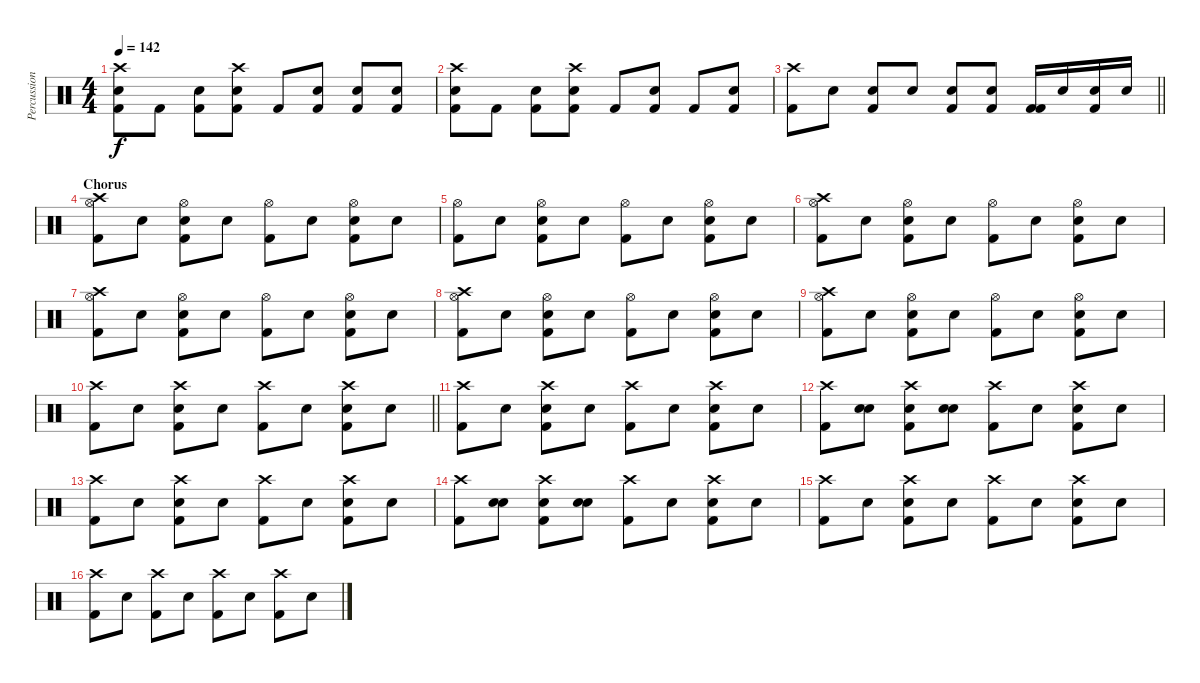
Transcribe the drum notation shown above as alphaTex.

\track ("Percussion" "Percussion") {instrument percussion}
\staff {score}
\articulation defaults
\ts (4 4)
\tempo 142
\clef neutral
\ks c
("Crash high (hit)" "Kick (hit) 2" "Snare (hit) 2").8{dy f} "Kick (hit) 2".8 ("Kick (hit) 2" "Snare (hit) 2").8 ("Crash high (hit)" "Kick (hit) 2" "Snare (hit) 2").8 "Kick (hit) 2".8 ("Kick (hit) 2" "Snare (hit) 2").8 ("Kick (hit) 2" "Snare (hit) 2").8 ("Kick (hit) 2" "Snare (hit) 2").8 |
("Crash high (hit)" "Kick (hit) 2" "Snare (hit) 2").8 "Kick (hit) 2".8 ("Kick (hit) 2" "Snare (hit) 2").8 ("Crash high (hit)" "Kick (hit) 2" "Snare (hit) 2").8 "Kick (hit) 2".8 ("Kick (hit) 2" "Snare (hit) 2").8 "Kick (hit) 2".8 ("Kick (hit) 2" "Snare (hit) 2").8 |
\barLineRight lightlight
("Crash high (hit)" "Kick (hit) 2").8 "Snare (hit)".8 ("Snare (hit) 2" "Kick (hit) 2").8 "Snare (hit)".8 ("Snare (hit) 2" "Kick (hit) 2").8 ("Kick (hit) 2" "Snare (hit)").8 ("Kick (hit) 2" "Kick (hit) 2").16 "Snare (hit) 2".16 ("Snare (hit) 2" "Kick (hit) 2").16 "Snare (hit) 2".16 |
\section ("" "Chorus")
("Crash high (hit)" "Kick (hit) 2" "Hi-Hat (open)").8 "Snare (hit)".8 ("Snare (hit) 2" "Kick (hit) 2" "Hi-Hat (open)").8 "Snare (hit)".8 ("Kick (hit) 2" "Hi-Hat (open)").8 "Snare (hit)".8 ("Snare (hit) 2" "Kick (hit) 2" "Hi-Hat (open)").8 "Snare (hit)".8 |
("Kick (hit) 2" "Hi-Hat (open)").8 "Snare (hit)".8 ("Snare (hit) 2" "Kick (hit) 2" "Hi-Hat (open)").8 "Snare (hit)".8 ("Kick (hit) 2" "Hi-Hat (open)").8 "Snare (hit)".8 ("Snare (hit) 2" "Kick (hit) 2" "Hi-Hat (open)").8 "Snare (hit)".8 |
("Crash high (hit)" "Kick (hit) 2" "Hi-Hat (open)").8 "Snare (hit)".8 ("Kick (hit) 2" "Snare (hit) 2" "Hi-Hat (open)").8 "Snare (hit)".8 ("Kick (hit) 2" "Hi-Hat (open)").8 "Snare (hit)".8 ("Kick (hit) 2" "Snare (hit) 2" "Hi-Hat (open)").8 "Snare (hit)".8 |
("Crash high (hit)" "Kick (hit) 2" "Hi-Hat (open)").8 "Snare (hit)".8 ("Kick (hit) 2" "Snare (hit) 2" "Hi-Hat (open)").8 "Snare (hit)".8 ("Kick (hit) 2" "Hi-Hat (open)").8 "Snare (hit)".8 ("Kick (hit) 2" "Snare (hit) 2" "Hi-Hat (open)").8 "Snare (hit)".8 |
("Crash high (hit)" "Kick (hit) 2" "Hi-Hat (open)").8 "Snare (hit)".8 ("Kick (hit) 2" "Snare (hit) 2" "Hi-Hat (open)").8 "Snare (hit)".8 ("Kick (hit) 2" "Hi-Hat (open)").8 "Snare (hit)".8 ("Kick (hit) 2" "Snare (hit) 2" "Hi-Hat (open)").8 "Snare (hit)".8 |
("Crash high (hit)" "Kick (hit) 2" "Hi-Hat (open)").8 "Snare (hit)".8 ("Kick (hit) 2" "Snare (hit) 2" "Hi-Hat (open)").8 "Snare (hit)".8 ("Kick (hit) 2" "Hi-Hat (open)").8 "Snare (hit)".8 ("Kick (hit) 2" "Snare (hit) 2" "Hi-Hat (open)").8 "Snare (hit)".8 |
\barLineRight lightlight
("Crash high (hit)" "Kick (hit) 2").8 "Snare (hit)".8 ("Crash high (hit)" "Kick (hit) 2" "Snare (hit) 2").8 "Snare (hit)".8 ("Crash high (hit)" "Kick (hit) 2").8 "Snare (hit)".8 ("Crash high (hit)" "Kick (hit) 2" "Snare (hit) 2").8 "Snare (hit)".8 |
("Crash high (hit)" "Kick (hit) 2").8 "Snare (hit)".8 ("Crash high (hit)" "Kick (hit) 2" "Snare (hit) 2").8 "Snare (hit)".8 ("Crash high (hit)" "Kick (hit) 2").8 "Snare (hit)".8 ("Crash high (hit)" "Kick (hit) 2" "Snare (hit) 2").8 "Snare (hit)".8 |
("Crash high (hit)" "Kick (hit) 2").8 ("Snare (hit)" "Snare (hit)").8 ("Crash high (hit)" "Snare (hit) 2" "Kick (hit) 2").8 ("Snare (hit)" "Snare (hit)").8 ("Crash high (hit)" "Kick (hit) 2").8 "Snare (hit)".8 ("Crash high (hit)" "Snare (hit) 2" "Kick (hit) 2").8 "Snare (hit)".8 |
("Crash high (hit)" "Kick (hit) 2").8 "Snare (hit)".8 ("Crash high (hit)" "Kick (hit) 2" "Snare (hit) 2").8 "Snare (hit)".8 ("Crash high (hit)" "Kick (hit) 2").8 "Snare (hit)".8 ("Crash high (hit)" "Kick (hit) 2" "Snare (hit) 2").8 "Snare (hit)".8 |
("Crash high (hit)" "Kick (hit) 2").8 ("Snare (hit)" "Snare (hit)").8 ("Crash high (hit)" "Snare (hit) 2" "Kick (hit) 2").8 ("Snare (hit)" "Snare (hit)").8 ("Crash high (hit)" "Kick (hit) 2").8 "Snare (hit)".8 ("Crash high (hit)" "Snare (hit) 2" "Kick (hit) 2").8 "Snare (hit)".8 |
("Crash high (hit)" "Kick (hit) 2").8 "Snare (hit)".8 ("Crash high (hit)" "Snare (hit) 2" "Kick (hit) 2").8 "Snare (hit)".8 ("Crash high (hit)" "Kick (hit) 2").8 "Snare (hit)".8 ("Crash high (hit)" "Snare (hit) 2" "Kick (hit) 2").8 "Snare (hit)".8 |
("Crash high (hit)" "Kick (hit) 2").8 "Snare (hit)".8 ("Crash high (hit)" "Kick (hit) 2").8 "Snare (hit)".8 ("Crash high (hit)" "Kick (hit) 2").8 "Snare (hit)".8 ("Crash high (hit)" "Kick (hit) 2").8 "Snare (hit)".8
